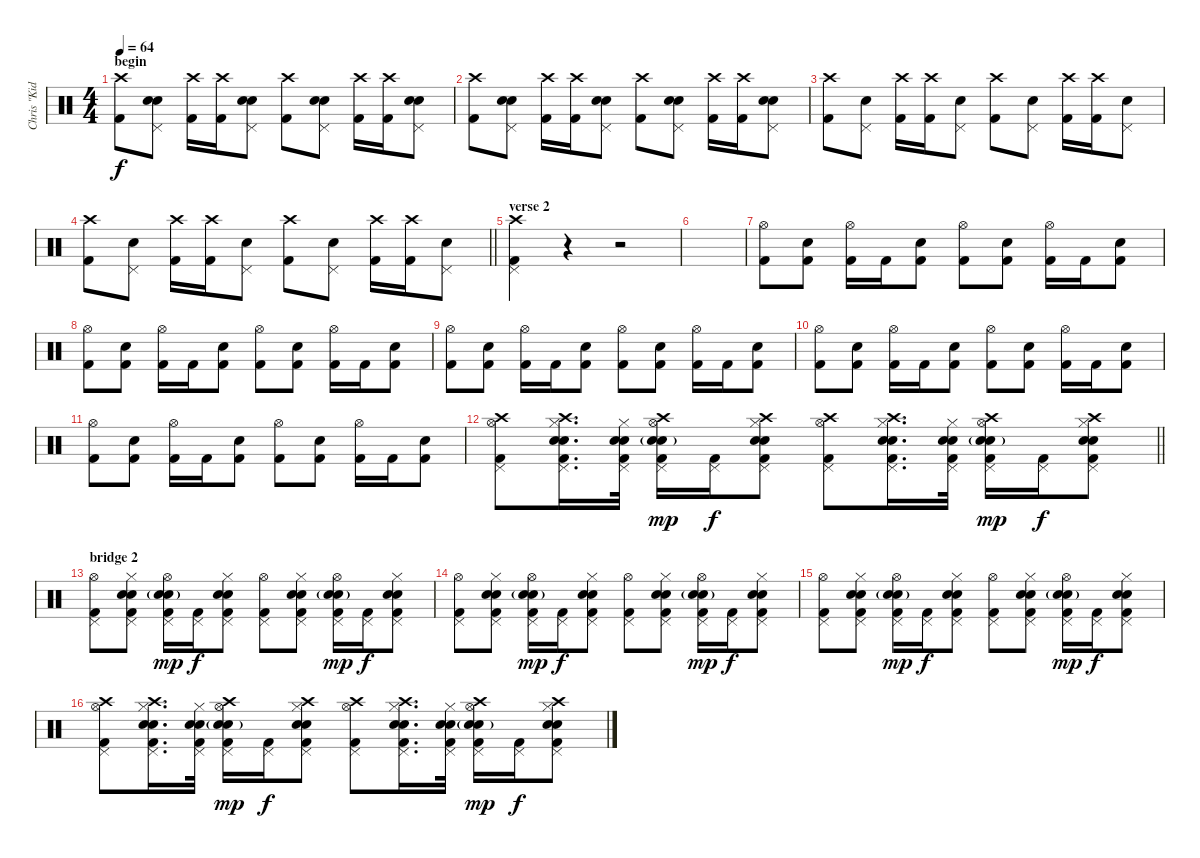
\track ("Chris \"Kid\" Knapp" "Chris \"Kid") {instrument percussion}
\staff {score}
\articulation defaults
\ts (4 4)
\section ("" "begin")
\tempo 64
\clef neutral
\ks c
("Crash high (hit)" "Kick (hit) 2").8{dy f} ("Snare (hit) 2" "Snare (hit) 2" "Pedal Hi-Hat (hit)").8 ("Crash high (hit)" "Kick (hit) 2").16 ("Crash high (hit)" "Kick (hit) 2").16 ("Snare (hit) 2" "Snare (hit) 2" "Pedal Hi-Hat (hit)").8 ("Crash high (hit)" "Kick (hit) 2").8 ("Snare (hit) 2" "Snare (hit) 2" "Pedal Hi-Hat (hit)").8 ("Crash high (hit)" "Kick (hit) 2").16 ("Crash high (hit)" "Kick (hit) 2").16 ("Snare (hit) 2" "Snare (hit) 2" "Pedal Hi-Hat (hit)").8 |
("Crash high (hit)" "Kick (hit) 2").8 ("Snare (hit) 2" "Snare (hit) 2" "Pedal Hi-Hat (hit)").8 ("Crash high (hit)" "Kick (hit) 2").16 ("Crash high (hit)" "Kick (hit) 2").16 ("Snare (hit) 2" "Snare (hit) 2" "Pedal Hi-Hat (hit)").8 ("Crash high (hit)" "Kick (hit) 2").8 ("Snare (hit) 2" "Snare (hit) 2" "Pedal Hi-Hat (hit)").8 ("Crash high (hit)" "Kick (hit) 2").16 ("Crash high (hit)" "Kick (hit) 2").16 ("Snare (hit) 2" "Snare (hit) 2" "Pedal Hi-Hat (hit)").8 |
("Crash high (hit)" "Kick (hit) 2").8 ("Snare (hit) 2" "Pedal Hi-Hat (hit)").8 ("Crash high (hit)" "Kick (hit) 2").16 ("Crash high (hit)" "Kick (hit) 2").16 ("Snare (hit) 2" "Pedal Hi-Hat (hit)").8 ("Crash high (hit)" "Kick (hit) 2").8 ("Snare (hit) 2" "Pedal Hi-Hat (hit)").8 ("Crash high (hit)" "Kick (hit) 2").16 ("Crash high (hit)" "Kick (hit) 2").16 ("Snare (hit) 2" "Pedal Hi-Hat (hit)").8 |
\barLineRight lightlight
("Crash high (hit)" "Kick (hit) 2").8 ("Snare (hit) 2" "Pedal Hi-Hat (hit)").8 ("Crash high (hit)" "Kick (hit) 2").16 ("Crash high (hit)" "Kick (hit) 2").16 ("Snare (hit) 2" "Pedal Hi-Hat (hit)").8 ("Crash high (hit)" "Kick (hit) 2").8 ("Snare (hit) 2" "Pedal Hi-Hat (hit)").8 ("Crash high (hit)" "Kick (hit) 2").16 ("Crash high (hit)" "Kick (hit) 2").16 ("Snare (hit) 2" "Pedal Hi-Hat (hit)").8 |
\section ("" "verse 2")
("Kick (hit) 2" "Pedal Hi-Hat (hit)" "Crash high (hit)").4 r.4 r.2 |
|
("Hi-Hat (open)" "Kick (hit) 2").8 ("Snare (hit) 2" "Kick (hit) 2").8 ("Hi-Hat (open)" "Kick (hit) 2").16 "Kick (hit) 2".16 ("Snare (hit) 2" "Kick (hit) 2").8 ("Hi-Hat (open)" "Kick (hit) 2").8 ("Snare (hit) 2" "Kick (hit) 2").8 ("Hi-Hat (open)" "Kick (hit) 2").16 "Kick (hit) 2".16 ("Snare (hit) 2" "Kick (hit) 2").8 |
("Hi-Hat (open)" "Kick (hit) 2").8 ("Snare (hit) 2" "Kick (hit) 2").8 ("Hi-Hat (open)" "Kick (hit) 2").16 "Kick (hit) 2".16 ("Snare (hit) 2" "Kick (hit) 2").8 ("Hi-Hat (open)" "Kick (hit) 2").8 ("Snare (hit) 2" "Kick (hit) 2").8 ("Hi-Hat (open)" "Kick (hit) 2").16 "Kick (hit) 2".16 ("Snare (hit) 2" "Kick (hit) 2").8 |
("Hi-Hat (open)" "Kick (hit) 2").8 ("Snare (hit) 2" "Kick (hit) 2").8 ("Hi-Hat (open)" "Kick (hit) 2").16 "Kick (hit) 2".16 ("Snare (hit) 2" "Kick (hit) 2").8 ("Hi-Hat (open)" "Kick (hit) 2").8 ("Snare (hit) 2" "Kick (hit) 2").8 ("Hi-Hat (open)" "Kick (hit) 2").16 "Kick (hit) 2".16 ("Snare (hit) 2" "Kick (hit) 2").8 |
("Hi-Hat (open)" "Kick (hit) 2").8 ("Snare (hit) 2" "Kick (hit) 2").8 ("Hi-Hat (open)" "Kick (hit) 2").16 "Kick (hit) 2".16 ("Snare (hit) 2" "Kick (hit) 2").8 ("Hi-Hat (open)" "Kick (hit) 2").8 ("Snare (hit) 2" "Kick (hit) 2").8 ("Hi-Hat (open)" "Kick (hit) 2").16 "Kick (hit) 2".16 ("Snare (hit) 2" "Kick (hit) 2").8 |
("Hi-Hat (open)" "Kick (hit) 2").8 ("Snare (hit) 2" "Kick (hit) 2").8 ("Hi-Hat (open)" "Kick (hit) 2").16 "Kick (hit) 2".16 ("Snare (hit) 2" "Kick (hit) 2").8 ("Hi-Hat (open)" "Kick (hit) 2").8 ("Snare (hit) 2" "Kick (hit) 2").8 ("Hi-Hat (open)" "Kick (hit) 2").16 "Kick (hit) 2".16 ("Snare (hit) 2" "Kick (hit) 2").8 |
\barLineRight lightlight
("Hi-Hat (open)" "Kick (hit) 2" "Pedal Hi-Hat (hit)" "Crash high (hit)").8 ("Snare (hit) 2" "Snare (hit) 2" "Hi-Hat (closed)" "Kick (hit) 2" "Pedal Hi-Hat (hit)" "Crash high (hit)").16{d} ("Snare (hit) 2" "Snare (hit) 2" "Hi-Hat (closed)" "Kick (hit) 2" "Pedal Hi-Hat (hit)").32 ("Snare (hit) 2"{g} "Snare (hit) 2"{g} "Hi-Hat (open)" "Kick (hit) 2" "Pedal Hi-Hat (hit)" "Crash high (hit)").16{dy mp} ("Kick (hit) 2" "Pedal Hi-Hat (hit)").16{dy f} ("Snare (hit) 2" "Snare (hit) 2" "Hi-Hat (closed)" "Kick (hit) 2" "Pedal Hi-Hat (hit)" "Crash high (hit)").8 ("Hi-Hat (open)" "Kick (hit) 2" "Pedal Hi-Hat (hit)" "Crash high (hit)").8 ("Snare (hit) 2" "Snare (hit) 2" "Hi-Hat (closed)" "Kick (hit) 2" "Pedal Hi-Hat (hit)" "Crash high (hit)").16{d} ("Snare (hit) 2" "Snare (hit) 2" "Hi-Hat (closed)" "Kick (hit) 2" "Pedal Hi-Hat (hit)").32 ("Snare (hit) 2"{g} "Snare (hit) 2"{g} "Hi-Hat (open)" "Kick (hit) 2" "Pedal Hi-Hat (hit)" "Crash high (hit)").16{dy mp} ("Kick (hit) 2" "Pedal Hi-Hat (hit)").16{dy f} ("Snare (hit) 2" "Snare (hit) 2" "Hi-Hat (closed)" "Kick (hit) 2" "Pedal Hi-Hat (hit)" "Crash high (hit)").8 |
\section ("" "bridge 2")
("Hi-Hat (open)" "Kick (hit) 2" "Pedal Hi-Hat (hit)").8 ("Snare (hit) 2" "Snare (hit) 2" "Hi-Hat (closed)" "Kick (hit) 2" "Pedal Hi-Hat (hit)").8 ("Snare (hit) 2"{g} "Snare (hit) 2"{g} "Hi-Hat (open)" "Kick (hit) 2" "Pedal Hi-Hat (hit)").16{dy mp} ("Kick (hit) 2" "Pedal Hi-Hat (hit)").16{dy f} ("Snare (hit) 2" "Snare (hit) 2" "Hi-Hat (closed)" "Kick (hit) 2" "Pedal Hi-Hat (hit)").8 ("Hi-Hat (open)" "Kick (hit) 2" "Pedal Hi-Hat (hit)").8 ("Snare (hit) 2" "Snare (hit) 2" "Hi-Hat (closed)" "Kick (hit) 2" "Pedal Hi-Hat (hit)").8 ("Snare (hit) 2"{g} "Snare (hit) 2"{g} "Hi-Hat (open)" "Kick (hit) 2" "Pedal Hi-Hat (hit)").16{dy mp} ("Kick (hit) 2" "Pedal Hi-Hat (hit)").16{dy f} ("Snare (hit) 2" "Snare (hit) 2" "Hi-Hat (closed)" "Kick (hit) 2" "Pedal Hi-Hat (hit)").8 |
("Hi-Hat (open)" "Kick (hit) 2" "Pedal Hi-Hat (hit)").8 ("Snare (hit) 2" "Snare (hit) 2" "Hi-Hat (closed)" "Kick (hit) 2" "Pedal Hi-Hat (hit)").8 ("Snare (hit) 2"{g} "Snare (hit) 2"{g} "Hi-Hat (open)" "Kick (hit) 2" "Pedal Hi-Hat (hit)").16{dy mp} ("Kick (hit) 2" "Pedal Hi-Hat (hit)").16{dy f} ("Snare (hit) 2" "Snare (hit) 2" "Hi-Hat (closed)" "Kick (hit) 2" "Pedal Hi-Hat (hit)").8 ("Hi-Hat (open)" "Kick (hit) 2" "Pedal Hi-Hat (hit)").8 ("Snare (hit) 2" "Snare (hit) 2" "Hi-Hat (closed)" "Kick (hit) 2" "Pedal Hi-Hat (hit)").8 ("Snare (hit) 2"{g} "Snare (hit) 2"{g} "Hi-Hat (open)" "Kick (hit) 2" "Pedal Hi-Hat (hit)").16{dy mp} ("Kick (hit) 2" "Pedal Hi-Hat (hit)").16{dy f} ("Snare (hit) 2" "Snare (hit) 2" "Hi-Hat (closed)" "Kick (hit) 2" "Pedal Hi-Hat (hit)").8 |
("Hi-Hat (open)" "Kick (hit) 2" "Pedal Hi-Hat (hit)").8 ("Snare (hit) 2" "Snare (hit) 2" "Hi-Hat (closed)" "Kick (hit) 2" "Pedal Hi-Hat (hit)").8 ("Snare (hit) 2"{g} "Snare (hit) 2"{g} "Hi-Hat (open)" "Kick (hit) 2" "Pedal Hi-Hat (hit)").16{dy mp} ("Kick (hit) 2" "Pedal Hi-Hat (hit)").16{dy f} ("Snare (hit) 2" "Snare (hit) 2" "Hi-Hat (closed)" "Kick (hit) 2" "Pedal Hi-Hat (hit)").8 ("Hi-Hat (open)" "Kick (hit) 2" "Pedal Hi-Hat (hit)").8 ("Snare (hit) 2" "Snare (hit) 2" "Hi-Hat (closed)" "Kick (hit) 2" "Pedal Hi-Hat (hit)").8 ("Snare (hit) 2"{g} "Snare (hit) 2"{g} "Hi-Hat (open)" "Kick (hit) 2" "Pedal Hi-Hat (hit)").16{dy mp} ("Kick (hit) 2" "Pedal Hi-Hat (hit)").16{dy f} ("Snare (hit) 2" "Snare (hit) 2" "Hi-Hat (closed)" "Kick (hit) 2" "Pedal Hi-Hat (hit)").8 |
("Hi-Hat (open)" "Kick (hit) 2" "Pedal Hi-Hat (hit)" "Crash high (hit)").8 ("Snare (hit) 2" "Snare (hit) 2" "Hi-Hat (closed)" "Kick (hit) 2" "Pedal Hi-Hat (hit)" "Crash high (hit)").16{d} ("Snare (hit) 2" "Snare (hit) 2" "Hi-Hat (closed)" "Kick (hit) 2" "Pedal Hi-Hat (hit)").32 ("Snare (hit) 2"{g} "Snare (hit) 2"{g} "Hi-Hat (open)" "Kick (hit) 2" "Pedal Hi-Hat (hit)" "Crash high (hit)").16{dy mp} ("Kick (hit) 2" "Pedal Hi-Hat (hit)").16{dy f} ("Snare (hit) 2" "Snare (hit) 2" "Hi-Hat (closed)" "Kick (hit) 2" "Pedal Hi-Hat (hit)" "Crash high (hit)").8 ("Hi-Hat (open)" "Kick (hit) 2" "Pedal Hi-Hat (hit)" "Crash high (hit)").8 ("Snare (hit) 2" "Snare (hit) 2" "Hi-Hat (closed)" "Kick (hit) 2" "Pedal Hi-Hat (hit)" "Crash high (hit)").16{d} ("Snare (hit) 2" "Snare (hit) 2" "Hi-Hat (closed)" "Kick (hit) 2" "Pedal Hi-Hat (hit)").32 ("Snare (hit) 2"{g} "Snare (hit) 2"{g} "Hi-Hat (open)" "Kick (hit) 2" "Pedal Hi-Hat (hit)" "Crash high (hit)").16{dy mp} ("Kick (hit) 2" "Pedal Hi-Hat (hit)").16{dy f} ("Snare (hit) 2" "Snare (hit) 2" "Hi-Hat (closed)" "Kick (hit) 2" "Pedal Hi-Hat (hit)" "Crash high (hit)").8
